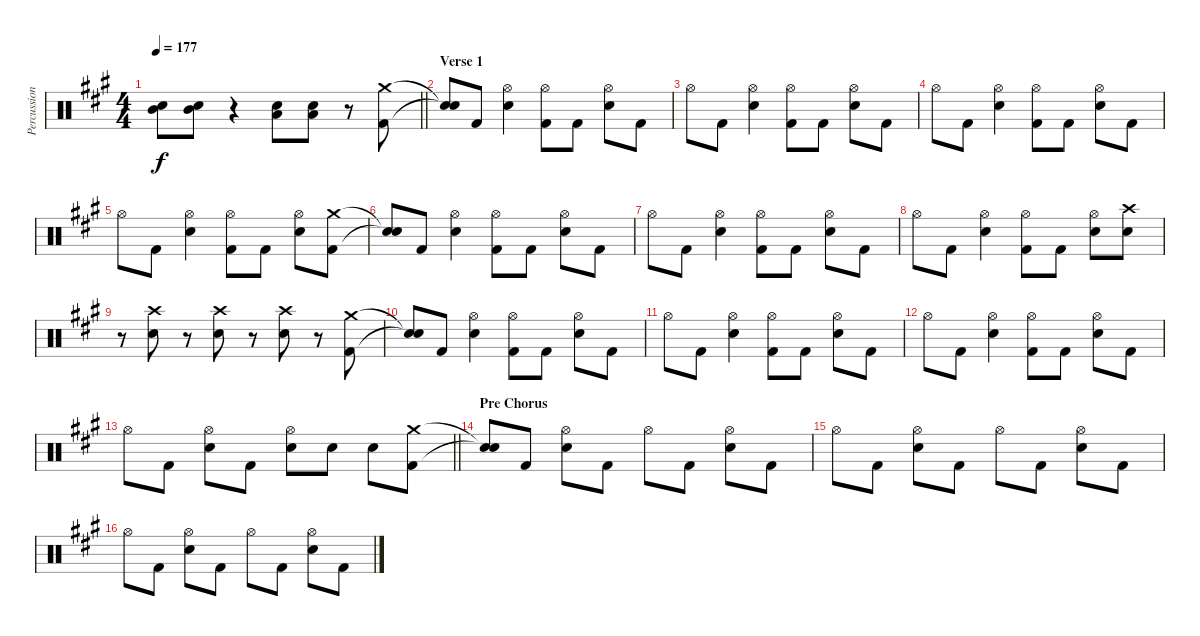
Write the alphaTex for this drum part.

\track ("Percussion" "Percussion") {instrument percussion}
\staff {score}
\articulation defaults
\ts (4 4)
\tempo 177
\clef neutral
\barLineRight lightlight
\ks a
("Mid Tom (hit)" "Snare (hit) 2").8{dy f} ("Mid Tom (hit)" "Snare (hit) 2").8 r.4 ("Low Tom (hit)" "Snare (hit) 2").8 ("Low Tom (hit)" "Snare (hit) 2").8 r.8 ("Kick (hit) 2" "Crash medium (hit)").8 |
\section ("" "Verse 1")
("Snare (hit)"{t} "Snare (hit)"{t}).8 "Kick (hit) 2".8 ("Hi-Hat (open)" "Snare (hit) 2").4 ("Hi-Hat (open)" "Kick (hit) 2").8 "Kick (hit) 2".8 ("Hi-Hat (open)" "Snare (hit) 2").8 "Kick (hit) 2".8 |
"Hi-Hat (open)".8 "Kick (hit) 2".8 ("Hi-Hat (open)" "Snare (hit) 2").4 ("Hi-Hat (open)" "Kick (hit) 2").8 "Kick (hit) 2".8 ("Hi-Hat (open)" "Snare (hit) 2").8 "Kick (hit) 2".8 |
"Hi-Hat (open)".8 "Kick (hit) 2".8 ("Hi-Hat (open)" "Snare (hit) 2").4 ("Hi-Hat (open)" "Kick (hit) 2").8 "Kick (hit) 2".8 ("Hi-Hat (open)" "Snare (hit) 2").8 "Kick (hit) 2".8 |
"Hi-Hat (open)".8 "Kick (hit) 2".8 ("Hi-Hat (open)" "Snare (hit) 2").4 ("Hi-Hat (open)" "Kick (hit) 2").8 "Kick (hit) 2".8 ("Hi-Hat (open)" "Snare (hit) 2").8 ("Kick (hit) 2" "Crash medium (hit)").8 |
("Snare (hit)"{t} "Snare (hit)"{t}).8 "Kick (hit) 2".8 ("Hi-Hat (open)" "Snare (hit) 2").4 ("Hi-Hat (open)" "Kick (hit) 2").8 "Kick (hit) 2".8 ("Hi-Hat (open)" "Snare (hit) 2").8 "Kick (hit) 2".8 |
"Hi-Hat (open)".8 "Kick (hit) 2".8 ("Hi-Hat (open)" "Snare (hit) 2").4 ("Hi-Hat (open)" "Kick (hit) 2").8 "Kick (hit) 2".8 ("Hi-Hat (open)" "Snare (hit) 2").8 "Kick (hit) 2".8 |
"Hi-Hat (open)".8 "Kick (hit) 2".8 ("Hi-Hat (open)" "Snare (hit) 2").4 ("Hi-Hat (open)" "Kick (hit) 2").8 "Kick (hit) 2".8 ("Hi-Hat (open)" "Snare (hit) 2").8 ("Snare (hit) 2" "Crash high (hit)").8 |
r.8{volume 0} ("Snare (hit) 2" "Crash high (hit)").8{volume 16} r.8{volume 0} ("Snare (hit) 2" "Crash high (hit)").8{volume 16} r.8{volume 0} ("Snare (hit) 2" "Crash high (hit)").8{volume 16} r.8{volume 0} ("Kick (hit) 2" "Crash medium (hit)").8{volume 16} |
("Snare (hit)"{t} "Snare (hit)"{t}).8 "Kick (hit) 2".8 ("Hi-Hat (open)" "Snare (hit) 2").4 ("Hi-Hat (open)" "Kick (hit) 2").8 "Kick (hit) 2".8 ("Hi-Hat (open)" "Snare (hit) 2").8 "Kick (hit) 2".8 |
"Hi-Hat (open)".8 "Kick (hit) 2".8 ("Hi-Hat (open)" "Snare (hit) 2").4 ("Hi-Hat (open)" "Kick (hit) 2").8 "Kick (hit) 2".8 ("Hi-Hat (open)" "Snare (hit) 2").8 "Kick (hit) 2".8 |
"Hi-Hat (open)".8 "Kick (hit) 2".8 ("Hi-Hat (open)" "Snare (hit) 2").4 ("Hi-Hat (open)" "Kick (hit) 2").8 "Kick (hit) 2".8 ("Hi-Hat (open)" "Snare (hit) 2").8 "Kick (hit) 2".8 |
\barLineRight lightlight "Hi-Hat (open)".8 "Kick (hit) 2".8
("Hi-Hat (open)" "Snare (hit) 2").8 "Kick (hit) 2".8 ("Hi-Hat (open)" "Snare (hit) 2").8 "Snare (hit) 2".8 "Snare (hit) 2".8 ("Kick (hit) 2" "Crash medium (hit)").8 |
\section ("" "Pre Chorus")
("Snare (hit)"{t} "Snare (hit)"{t}).8 "Kick (hit) 2".8 ("Hi-Hat (open)" "Snare (hit) 2").8 "Kick (hit) 2".8 "Hi-Hat (open)".8 "Kick (hit) 2".8 ("Hi-Hat (open)" "Snare (hit) 2").8 "Kick (hit) 2".8 |
"Hi-Hat (open)".8 "Kick (hit) 2".8 ("Hi-Hat (open)" "Snare (hit) 2").8 "Kick (hit) 2".8 "Hi-Hat (open)".8 "Kick (hit) 2".8 ("Hi-Hat (open)" "Snare (hit) 2").8 "Kick (hit) 2".8 |
"Hi-Hat (open)".8 "Kick (hit) 2".8 ("Hi-Hat (open)" "Snare (hit) 2").8 "Kick (hit) 2".8 "Hi-Hat (open)".8 "Kick (hit) 2".8 ("Hi-Hat (open)" "Snare (hit) 2").8 "Kick (hit) 2".8
